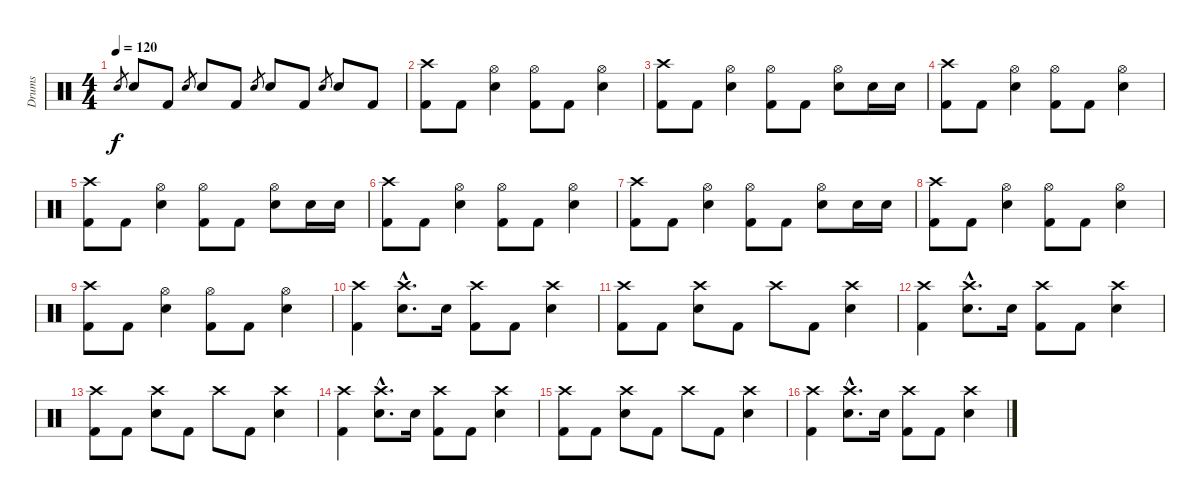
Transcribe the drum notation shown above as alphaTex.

\track ("Drums" "Drums") {instrument percussion}
\staff {score}
\articulation defaults
\ts (4 4)
\tempo 120
\clef neutral
\ks c "Snare (hit) 2".8{gr dy f} "Snare (hit) 2".8 "Kick (hit) 2".8 "Snare (hit) 2".8{gr} "Snare (hit) 2".8 "Kick (hit) 2".8 "Snare (hit) 2".8{gr} "Snare (hit) 2".8 "Kick (hit) 2".8 "Snare (hit) 2".8{gr} "Snare (hit) 2".8 "Kick (hit) 2".8
|
("Crash high (hit)" "Kick (hit) 2").8 "Kick (hit) 2".8 ("Hi-Hat (open)" "Snare (hit) 2").4 ("Hi-Hat (open)" "Kick (hit) 2").8 "Kick (hit) 2".8 ("Hi-Hat (open)" "Snare (hit) 2").4 |
("Crash high (hit)" "Kick (hit) 2").8 "Kick (hit) 2".8 ("Hi-Hat (open)" "Snare (hit) 2").4 ("Hi-Hat (open)" "Kick (hit) 2").8 "Kick (hit) 2".8 ("Hi-Hat (open)" "Snare (hit) 2").8 "Snare (hit) 2".16 "Snare (hit) 2".16 |
("Crash high (hit)" "Kick (hit) 2").8 "Kick (hit) 2".8 ("Hi-Hat (open)" "Snare (hit) 2").4 ("Hi-Hat (open)" "Kick (hit) 2").8 "Kick (hit) 2".8 ("Hi-Hat (open)" "Snare (hit) 2").4 |
("Crash high (hit)" "Kick (hit) 2").8 "Kick (hit) 2".8 ("Hi-Hat (open)" "Snare (hit) 2").4 ("Hi-Hat (open)" "Kick (hit) 2").8 "Kick (hit) 2".8 ("Hi-Hat (open)" "Snare (hit) 2").8 "Snare (hit) 2".16 "Snare (hit) 2".16 |
("Crash high (hit)" "Kick (hit) 2").8 "Kick (hit) 2".8 ("Hi-Hat (open)" "Snare (hit) 2").4 ("Hi-Hat (open)" "Kick (hit) 2").8 "Kick (hit) 2".8 ("Hi-Hat (open)" "Snare (hit) 2").4 |
("Crash high (hit)" "Kick (hit) 2").8 "Kick (hit) 2".8 ("Hi-Hat (open)" "Snare (hit) 2").4 ("Hi-Hat (open)" "Kick (hit) 2").8 "Kick (hit) 2".8 ("Hi-Hat (open)" "Snare (hit) 2").8 "Snare (hit) 2".16 "Snare (hit) 2".16 |
("Crash high (hit)" "Kick (hit) 2").8 "Kick (hit) 2".8 ("Hi-Hat (open)" "Snare (hit) 2").4 ("Hi-Hat (open)" "Kick (hit) 2").8 "Kick (hit) 2".8 ("Hi-Hat (open)" "Snare (hit) 2").4 |
("Crash high (hit)" "Kick (hit) 2").8 "Kick (hit) 2".8 ("Hi-Hat (open)" "Snare (hit) 2").4 ("Hi-Hat (open)" "Kick (hit) 2").8 "Kick (hit) 2".8 ("Hi-Hat (open)" "Snare (hit) 2").4 |
("Crash high (hit)" "Kick (hit) 2").4 ("Crash high (hit)"{hac} "Snare (hit) 2"{hac}).8{d} "Snare (hit) 2".16 ("Crash high (hit)" "Kick (hit) 2").8 "Kick (hit) 2".8 ("Crash high (hit)" "Snare (hit) 2").4 |
("Crash high (hit)" "Kick (hit) 2").8 "Kick (hit) 2".8 ("Crash high (hit)" "Snare (hit) 2").8 "Kick (hit) 2".8 "Crash high (hit)".8 "Kick (hit) 2".8 ("Crash high (hit)" "Snare (hit) 2").4 |
("Crash high (hit)" "Kick (hit) 2").4 ("Crash high (hit)"{hac} "Snare (hit) 2"{hac}).8{d} "Snare (hit) 2".16 ("Crash high (hit)" "Kick (hit) 2").8 "Kick (hit) 2".8 ("Crash high (hit)" "Snare (hit) 2").4 |
("Crash high (hit)" "Kick (hit) 2").8 "Kick (hit) 2".8 ("Crash high (hit)" "Snare (hit) 2").8 "Kick (hit) 2".8 "Crash high (hit)".8 "Kick (hit) 2".8 ("Crash high (hit)" "Snare (hit) 2").4 |
("Crash high (hit)" "Kick (hit) 2").4 ("Crash high (hit)"{hac} "Snare (hit) 2"{hac}).8{d} "Snare (hit) 2".16 ("Crash high (hit)" "Kick (hit) 2").8 "Kick (hit) 2".8 ("Crash high (hit)" "Snare (hit) 2").4 |
("Crash high (hit)" "Kick (hit) 2").8 "Kick (hit) 2".8 ("Crash high (hit)" "Snare (hit) 2").8 "Kick (hit) 2".8 "Crash high (hit)".8 "Kick (hit) 2".8 ("Crash high (hit)" "Snare (hit) 2").4 |
("Crash high (hit)" "Kick (hit) 2").4 ("Crash high (hit)"{hac} "Snare (hit) 2"{hac}).8{d} "Snare (hit) 2".16 ("Crash high (hit)" "Kick (hit) 2").8 "Kick (hit) 2".8 ("Crash high (hit)" "Snare (hit) 2").4
